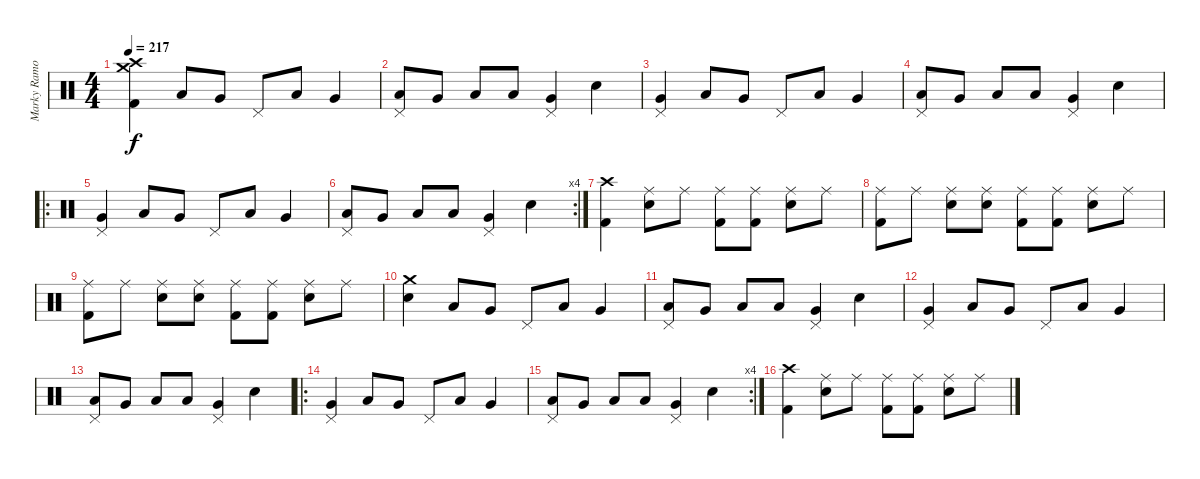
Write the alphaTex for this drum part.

\track ("Marky Ramone" "Marky Ramo") {instrument percussion}
\staff {score}
\articulation defaults
\ts (4 4)
\tempo 217
\clef neutral
\ks c
("Crash high (hit)" "Crash medium (hit)" "Kick (hit) 2").4{dy f} "Low Tom (hit)".8 "Very Low Tom (hit)".8 "Pedal Hi-Hat (hit)".8 "Low Tom (hit)".8 "Very Low Tom (hit)".4 |
("Pedal Hi-Hat (hit)" "Low Tom (hit)").8 "Very Low Tom (hit)".8 "Low Floor Tom (hit)".8 "Low Tom (hit)".8 ("Pedal Hi-Hat (hit)" "Very Low Tom (hit)").4 "Electric Snare (hit)".4 |
("Pedal Hi-Hat (hit)" "Very Low Tom (hit)").4 "Low Tom (hit)".8 "Very Low Tom (hit)".8 "Pedal Hi-Hat (hit)".8 "Low Tom (hit)".8 "Very Low Tom (hit)".4 |
("Pedal Hi-Hat (hit)" "Low Tom (hit)").8 "Very Low Tom (hit)".8 "Low Floor Tom (hit)".8 "Low Tom (hit)".8 ("Pedal Hi-Hat (hit)" "Very Low Tom (hit)").4 "Electric Snare (hit)".4 |
\ro
("Pedal Hi-Hat (hit)" "Very Low Tom (hit)").4 "Low Tom (hit)".8 "Very Low Tom (hit)".8 "Pedal Hi-Hat (hit)".8 "Low Tom (hit)".8 "Very Low Tom (hit)".4 |
\rc 4
("Pedal Hi-Hat (hit)" "Low Tom (hit)").8 "Very Low Tom (hit)".8 "Low Floor Tom (hit)".8 "Low Tom (hit)".8 ("Pedal Hi-Hat (hit)" "Very Low Tom (hit)").4 "Electric Snare (hit)".4 |
("Crash high (hit)" "Kick (hit) 2").4 ("Ride (middle)" "Electric Snare (hit)").8 "Ride (middle)".8 ("Ride (middle)" "Kick (hit) 2").8 ("Ride (middle)" "Kick (hit) 2").8 ("Ride (middle)" "Electric Snare (hit)").8 "Ride (middle)".8 |
("Ride (middle)" "Kick (hit) 2").8 "Ride (middle)".8 ("Ride (middle)" "Electric Snare (hit)").8 ("Ride (middle)" "Electric Snare (hit)").8 ("Ride (middle)" "Kick (hit) 2").8 ("Ride (middle)" "Kick (hit) 2").8 ("Ride (middle)" "Electric Snare (hit)").8 "Ride (middle)".8 |
("Ride (middle)" "Kick (hit) 2").8 "Ride (middle)".8 ("Ride (middle)" "Electric Snare (hit)").8 ("Ride (middle)" "Electric Snare (hit)").8 ("Ride (middle)" "Kick (hit) 2").8 ("Ride (middle)" "Kick (hit) 2").8 ("Ride (middle)" "Electric Snare (hit)").8 "Ride (middle)".8 |
("Crash medium (hit)" "Electric Snare (hit)").4 "Low Tom (hit)".8 "Very Low Tom (hit)".8 "Pedal Hi-Hat (hit)".8 "Low Tom (hit)".8 "Very Low Tom (hit)".4 |
("Pedal Hi-Hat (hit)" "Low Tom (hit)").8 "Very Low Tom (hit)".8 "Low Floor Tom (hit)".8 "Low Tom (hit)".8 ("Pedal Hi-Hat (hit)" "Very Low Tom (hit)").4 "Electric Snare (hit)".4 |
("Pedal Hi-Hat (hit)" "Very Low Tom (hit)").4 "Low Tom (hit)".8 "Very Low Tom (hit)".8 "Pedal Hi-Hat (hit)".8 "Low Tom (hit)".8 "Very Low Tom (hit)".4 |
("Pedal Hi-Hat (hit)" "Low Tom (hit)").8 "Very Low Tom (hit)".8 "Low Floor Tom (hit)".8 "Low Tom (hit)".8 ("Pedal Hi-Hat (hit)" "Very Low Tom (hit)").4 "Electric Snare (hit)".4 |
\ro
("Pedal Hi-Hat (hit)" "Very Low Tom (hit)").4 "Low Tom (hit)".8 "Very Low Tom (hit)".8 "Pedal Hi-Hat (hit)".8 "Low Tom (hit)".8 "Very Low Tom (hit)".4 |
\rc 4
("Pedal Hi-Hat (hit)" "Low Tom (hit)").8 "Very Low Tom (hit)".8 "Low Floor Tom (hit)".8 "Low Tom (hit)".8 ("Pedal Hi-Hat (hit)" "Very Low Tom (hit)").4 "Electric Snare (hit)".4 |
("Crash high (hit)" "Kick (hit) 2").4 ("Ride (middle)" "Electric Snare (hit)").8 "Ride (middle)".8 ("Ride (middle)" "Kick (hit) 2").8 ("Ride (middle)" "Kick (hit) 2").8 ("Ride (middle)" "Electric Snare (hit)").8 "Ride (middle)".8
